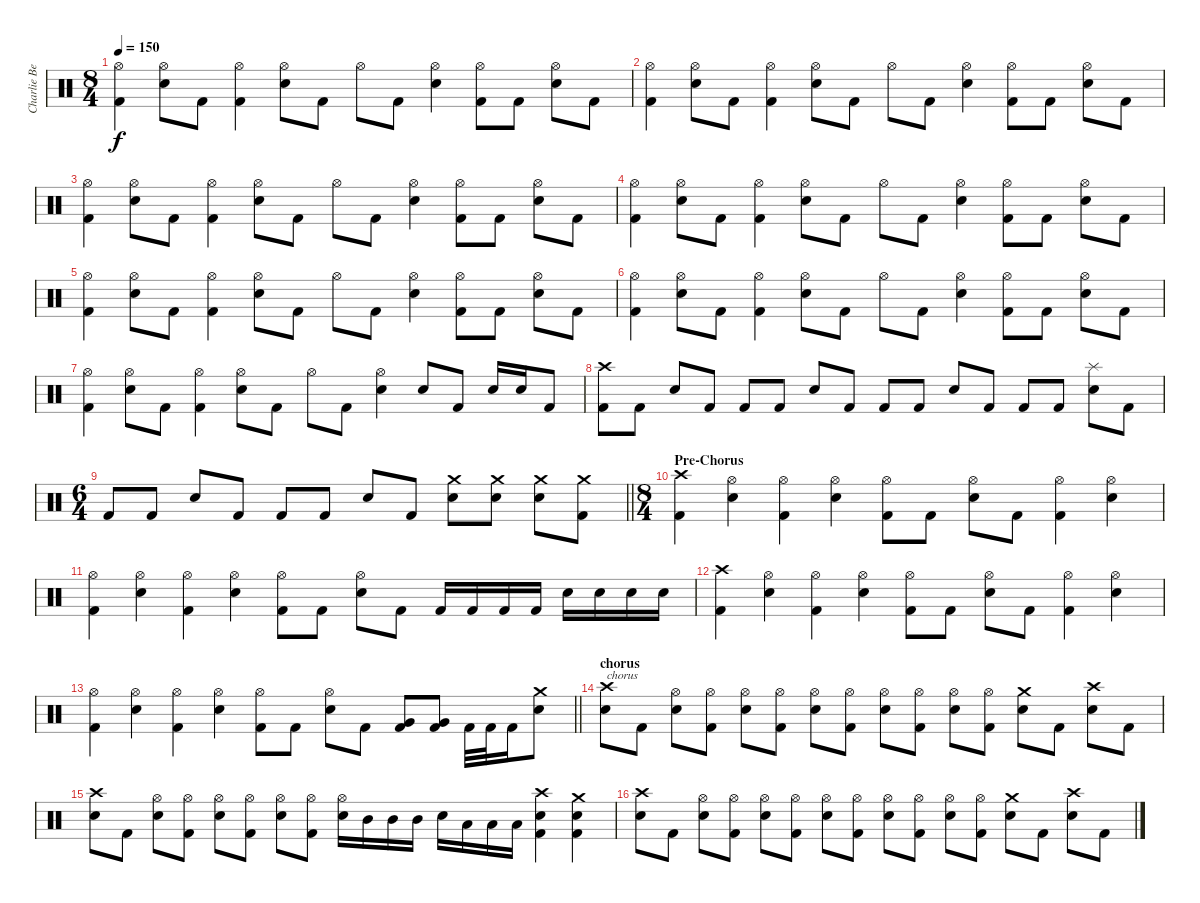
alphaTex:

\track ("Charlie Benante" "Charlie Be") {instrument percussion}
\staff {score}
\articulation defaults
\ts (8 4)
\tempo 150
\clef neutral
\ks c
("Hi-Hat (open)" "Kick (hit) 2").4{dy f} ("Hi-Hat (open)" "Electric Snare (hit)").8 "Kick (hit) 2".8 ("Hi-Hat (open)" "Kick (hit) 2").4 ("Hi-Hat (open)" "Electric Snare (hit)").8 "Kick (hit) 2".8 "Hi-Hat (open)".8 "Kick (hit) 2".8 ("Hi-Hat (open)" "Electric Snare (hit)").4 ("Hi-Hat (open)" "Kick (hit) 2").8 "Kick (hit) 2".8 ("Hi-Hat (open)" "Electric Snare (hit)").8 "Kick (hit) 2".8 |
("Hi-Hat (open)" "Kick (hit) 2").4 ("Hi-Hat (open)" "Electric Snare (hit)").8 "Kick (hit) 2".8 ("Hi-Hat (open)" "Kick (hit) 2").4 ("Hi-Hat (open)" "Electric Snare (hit)").8 "Kick (hit) 2".8 "Hi-Hat (open)".8 "Kick (hit) 2".8 ("Hi-Hat (open)" "Electric Snare (hit)").4 ("Hi-Hat (open)" "Kick (hit) 2").8 "Kick (hit) 2".8 ("Hi-Hat (open)" "Electric Snare (hit)").8 "Kick (hit) 2".8 |
("Hi-Hat (open)" "Kick (hit) 2").4 ("Hi-Hat (open)" "Electric Snare (hit)").8 "Kick (hit) 2".8 ("Hi-Hat (open)" "Kick (hit) 2").4 ("Hi-Hat (open)" "Electric Snare (hit)").8 "Kick (hit) 2".8 "Hi-Hat (open)".8 "Kick (hit) 2".8 ("Hi-Hat (open)" "Electric Snare (hit)").4 ("Hi-Hat (open)" "Kick (hit) 2").8 "Kick (hit) 2".8 ("Hi-Hat (open)" "Electric Snare (hit)").8 "Kick (hit) 2".8 |
("Hi-Hat (open)" "Kick (hit) 2").4 ("Hi-Hat (open)" "Electric Snare (hit)").8 "Kick (hit) 2".8 ("Hi-Hat (open)" "Kick (hit) 2").4 ("Hi-Hat (open)" "Electric Snare (hit)").8 "Kick (hit) 2".8 "Hi-Hat (open)".8 "Kick (hit) 2".8 ("Hi-Hat (open)" "Electric Snare (hit)").4 ("Hi-Hat (open)" "Kick (hit) 2").8 "Kick (hit) 2".8 ("Hi-Hat (open)" "Electric Snare (hit)").8 "Kick (hit) 2".8 |
("Hi-Hat (open)" "Kick (hit) 2").4 ("Hi-Hat (open)" "Electric Snare (hit)").8 "Kick (hit) 2".8 ("Hi-Hat (open)" "Kick (hit) 2").4 ("Hi-Hat (open)" "Electric Snare (hit)").8 "Kick (hit) 2".8 "Hi-Hat (open)".8 "Kick (hit) 2".8 ("Hi-Hat (open)" "Electric Snare (hit)").4 ("Hi-Hat (open)" "Kick (hit) 2").8 "Kick (hit) 2".8 ("Hi-Hat (open)" "Electric Snare (hit)").8 "Kick (hit) 2".8 |
("Hi-Hat (open)" "Kick (hit) 2").4 ("Hi-Hat (open)" "Electric Snare (hit)").8 "Kick (hit) 2".8 ("Hi-Hat (open)" "Kick (hit) 2").4 ("Hi-Hat (open)" "Electric Snare (hit)").8 "Kick (hit) 2".8 "Hi-Hat (open)".8 "Kick (hit) 2".8 ("Hi-Hat (open)" "Electric Snare (hit)").4 ("Hi-Hat (open)" "Kick (hit) 2").8 "Kick (hit) 2".8 ("Hi-Hat (open)" "Electric Snare (hit)").8 "Kick (hit) 2".8 |
("Hi-Hat (open)" "Kick (hit) 2").4 ("Hi-Hat (open)" "Electric Snare (hit)").8 "Kick (hit) 2".8 ("Hi-Hat (open)" "Kick (hit) 2").4 ("Hi-Hat (open)" "Electric Snare (hit)").8 "Kick (hit) 2".8 "Hi-Hat (open)".8 "Kick (hit) 2".8 ("Hi-Hat (open)" "Electric Snare (hit)").4 "Electric Snare (hit)".8 "Kick (hit) 2".8 "Electric Snare (hit)".16 "Electric Snare (hit)".16 "Kick (hit) 2".8 |
("Crash high (hit)" "Kick (hit) 2").8 "Kick (hit) 2".8 "Electric Snare (hit)".8 "Kick (hit) 2".8 "Kick (hit) 2".8 "Kick (hit) 2".8 "Electric Snare (hit)".8 "Kick (hit) 2".8 "Kick (hit) 2".8 "Kick (hit) 2".8 "Electric Snare (hit)".8 "Kick (hit) 2".8 "Kick (hit) 2".8 "Kick (hit) 2".8 ("Splash (hit)" "Electric Snare (hit)").8 "Kick (hit) 2".8 |
\ts (6 4)
\barLineRight lightlight "Kick (hit) 2".8 "Kick (hit) 2".8 "Electric Snare (hit)".8 "Kick (hit) 2".8 "Kick (hit) 2".8 "Kick (hit) 2".8 "Electric Snare (hit)".8 "Kick (hit) 2".8
("Crash medium (hit)" "Electric Snare (hit)").8 ("Crash medium (hit)" "Electric Snare (hit)").8 ("Crash medium (hit)" "Electric Snare (hit)").8 ("Crash medium (hit)" "Kick (hit) 2").8 |
\ts (8 4)
\section ("" "Pre-Chorus")
("Crash high (hit)" "Kick (hit) 2").4 ("Hi-Hat (open)" "Electric Snare (hit)").4 ("Hi-Hat (open)" "Kick (hit) 2").4 ("Hi-Hat (open)" "Electric Snare (hit)").4 ("Hi-Hat (open)" "Kick (hit) 2").8 "Kick (hit) 2".8 ("Hi-Hat (open)" "Electric Snare (hit)").8 "Kick (hit) 2".8 ("Hi-Hat (open)" "Kick (hit) 2").4 ("Hi-Hat (open)" "Electric Snare (hit)").4 |
("Hi-Hat (open)" "Kick (hit) 2").4 ("Hi-Hat (open)" "Electric Snare (hit)").4 ("Hi-Hat (open)" "Kick (hit) 2").4 ("Hi-Hat (open)" "Electric Snare (hit)").4 ("Hi-Hat (open)" "Kick (hit) 2").8 "Kick (hit) 2".8 ("Hi-Hat (open)" "Electric Snare (hit)").8 "Kick (hit) 2".8 "Kick (hit) 2".16 "Kick (hit) 2".16 "Kick (hit) 2".16 "Kick (hit) 2".16 "Electric Snare (hit)".16 "Electric Snare (hit)".16 "Electric Snare (hit)".16 "Electric Snare (hit)".16 |
("Crash high (hit)" "Kick (hit) 2").4 ("Hi-Hat (open)" "Electric Snare (hit)").4 ("Hi-Hat (open)" "Kick (hit) 2").4 ("Hi-Hat (open)" "Electric Snare (hit)").4 ("Hi-Hat (open)" "Kick (hit) 2").8 "Kick (hit) 2".8 ("Hi-Hat (open)" "Electric Snare (hit)").8 "Kick (hit) 2".8 ("Hi-Hat (open)" "Kick (hit) 2").4 ("Hi-Hat (open)" "Electric Snare (hit)").4 |
\barLineRight lightlight
("Hi-Hat (open)" "Kick (hit) 2").4 ("Hi-Hat (open)" "Electric Snare (hit)").4 ("Hi-Hat (open)" "Kick (hit) 2").4 ("Hi-Hat (open)" "Electric Snare (hit)").4 ("Hi-Hat (open)" "Kick (hit) 2").8 "Kick (hit) 2".8 ("Hi-Hat (open)" "Electric Snare (hit)").8 "Kick (hit) 2".8 ("Very Low Tom (hit)" "Kick (hit) 2").8 ("Very Low Tom (hit)" "Kick (hit) 2").8 "Kick (hit) 2".32 "Kick (hit) 2".32 "Kick (hit) 2".16 ("Crash medium (hit)" "Electric Snare (hit)").8 |
\section ("" "chorus")
("Crash high (hit)" "Electric Snare (hit)").8{txt "chorus"} "Kick (hit) 2".8 ("Hi-Hat (open)" "Electric Snare (hit)").8 ("Hi-Hat (open)" "Kick (hit) 2").8 ("Hi-Hat (open)" "Electric Snare (hit)").8 ("Hi-Hat (open)" "Kick (hit) 2").8 ("Hi-Hat (open)" "Electric Snare (hit)").8 ("Hi-Hat (open)" "Kick (hit) 2").8 ("Hi-Hat (open)" "Electric Snare (hit)").8 ("Hi-Hat (open)" "Kick (hit) 2").8 ("Hi-Hat (open)" "Electric Snare (hit)").8 ("Hi-Hat (open)" "Kick (hit) 2").8 ("Crash medium (hit)" "Electric Snare (hit)").8 "Kick (hit) 2".8 ("Crash high (hit)" "Electric Snare (hit)").8 "Kick (hit) 2".8 |
("Crash high (hit)" "Electric Snare (hit)").8 "Kick (hit) 2".8 ("Hi-Hat (open)" "Electric Snare (hit)").8 ("Hi-Hat (open)" "Kick (hit) 2").8 ("Hi-Hat (open)" "Electric Snare (hit)").8 ("Hi-Hat (open)" "Kick (hit) 2").8 ("Hi-Hat (open)" "Electric Snare (hit)").8 ("Hi-Hat (open)" "Kick (hit) 2").8 ("Hi-Hat (open)" "Electric Snare (hit)").16 "Mid Tom (hit)".16 "Mid Tom (hit)".16 "Mid Tom (hit)".16 "Electric Snare (hit)".16 "Low Tom (hit)".16 "Low Tom (hit)".16 "Low Tom (hit)".16 ("Crash high (hit)" "Electric Snare (hit)" "Kick (hit) 2").4 ("Crash medium (hit)" "Electric Snare (hit)" "Kick (hit) 2").4 |
("Crash high (hit)" "Electric Snare (hit)").8 "Kick (hit) 2".8 ("Hi-Hat (open)" "Electric Snare (hit)").8 ("Hi-Hat (open)" "Kick (hit) 2").8 ("Hi-Hat (open)" "Electric Snare (hit)").8 ("Hi-Hat (open)" "Kick (hit) 2").8 ("Hi-Hat (open)" "Electric Snare (hit)").8 ("Hi-Hat (open)" "Kick (hit) 2").8 ("Hi-Hat (open)" "Electric Snare (hit)").8 ("Hi-Hat (open)" "Kick (hit) 2").8 ("Hi-Hat (open)" "Electric Snare (hit)").8 ("Hi-Hat (open)" "Kick (hit) 2").8 ("Crash medium (hit)" "Electric Snare (hit)").8 "Kick (hit) 2".8 ("Crash high (hit)" "Electric Snare (hit)").8 "Kick (hit) 2".8
